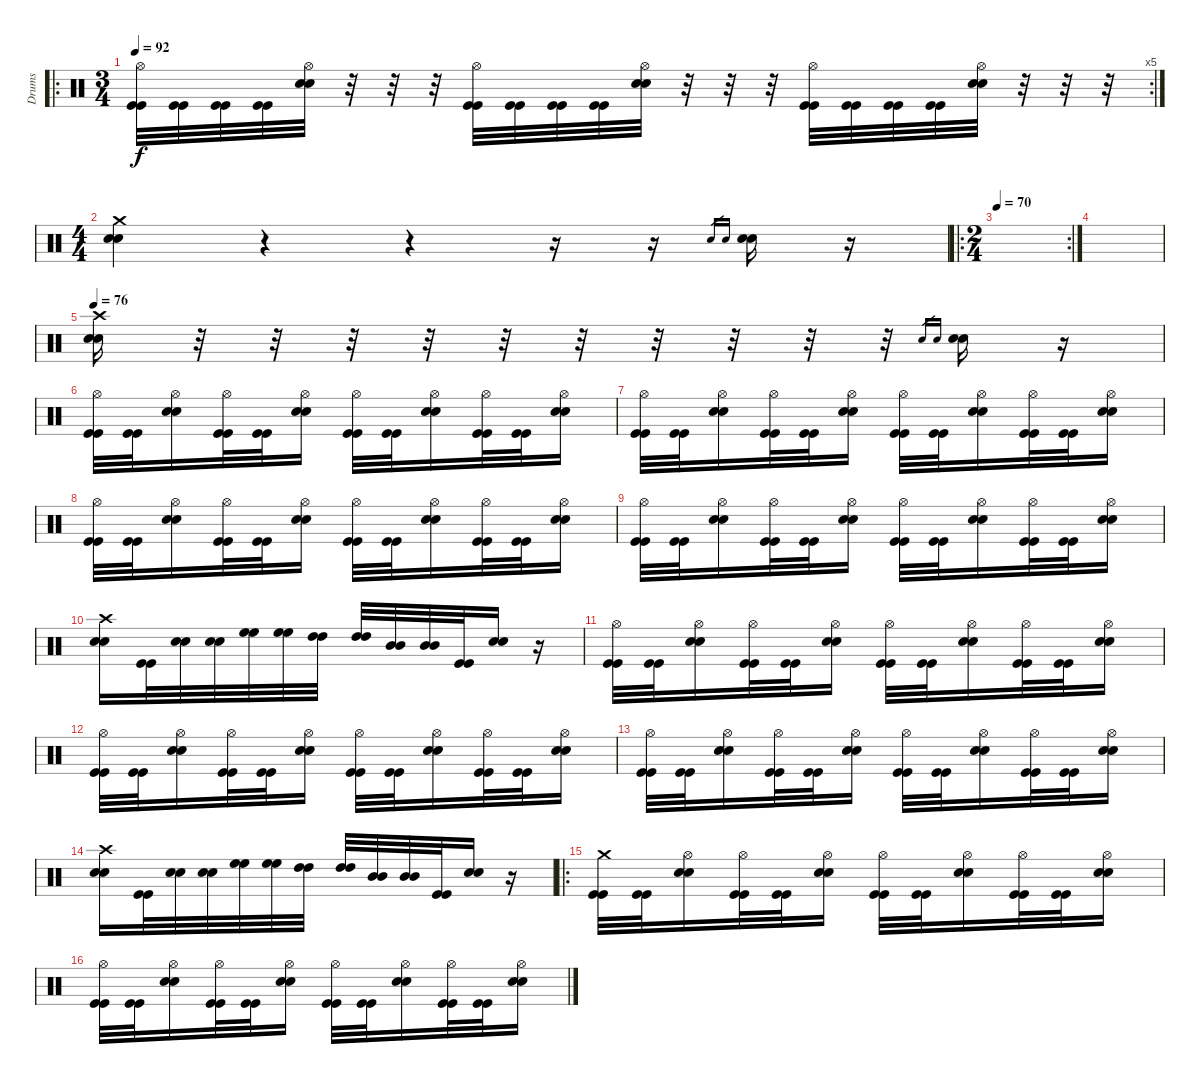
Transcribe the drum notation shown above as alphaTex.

\track ("Drums" "Drums") {instrument percussion}
\staff {score}
\articulation defaults
\ro
\rc 5
\ts (3 4)
\tempo 92
\clef neutral
\ks c
("Hi-Hat (open)" "Kick (hit)" "Kick (hit)").32{dy f} ("Kick (hit)" "Kick (hit)").32 ("Kick (hit)" "Kick (hit)").32 ("Kick (hit)" "Kick (hit)").32 ("Hi-Hat (open)" "Snare (hit) 2" "Snare (hit) 2").32 r.32 r.32 r.32 ("Hi-Hat (open)" "Kick (hit)" "Kick (hit)").32 ("Kick (hit)" "Kick (hit)").32 ("Kick (hit)" "Kick (hit)").32 ("Kick (hit)" "Kick (hit)").32 ("Hi-Hat (open)" "Snare (hit) 2" "Snare (hit) 2").32 r.32 r.32 r.32 ("Hi-Hat (open)" "Kick (hit)" "Kick (hit)").32 ("Kick (hit)" "Kick (hit)").32 ("Kick (hit)" "Kick (hit)").32 ("Kick (hit)" "Kick (hit)").32 ("Hi-Hat (open)" "Snare (hit) 2" "Snare (hit) 2").32 r.32 r.32 r.32 |
\ts (4 4)
("Crash medium (hit)" "Snare (hit) 2" "Snare (hit) 2").4 r.4 r.4 r.16 r.16 "Snare (hit) 2".16{gr} "Snare (hit) 2".16{gr} ("Snare (hit) 2" "Snare (hit) 2").16 r.16 |
\ro
\rc 2
\ts (2 4)
\tempo 70
|
|
\tempo 76
("Crash high (hit)" "Snare (hit) 2" "Snare (hit) 2").16 r.32 r.32 r.32 r.32 r.32 r.32 r.32 r.32 r.32 r.32 "Snare (hit) 2".16{gr} "Snare (hit) 2".16{gr} ("Snare (hit) 2" "Snare (hit) 2").16 r.16 |
("Hi-Hat (open)" "Kick (hit)" "Kick (hit)").32 ("Kick (hit)" "Kick (hit)").32 ("Hi-Hat (open)" "Snare (hit) 2" "Snare (hit) 2").16 ("Hi-Hat (open)" "Kick (hit)" "Kick (hit)").32 ("Kick (hit)" "Kick (hit)").32 ("Hi-Hat (open)" "Snare (hit) 2" "Snare (hit) 2").16 ("Hi-Hat (open)" "Kick (hit)" "Kick (hit)").32 ("Kick (hit)" "Kick (hit)").32 ("Hi-Hat (open)" "Snare (hit) 2" "Snare (hit) 2").16 ("Hi-Hat (open)" "Kick (hit)" "Kick (hit)").32 ("Kick (hit)" "Kick (hit)").32 ("Hi-Hat (open)" "Snare (hit) 2" "Snare (hit) 2").16 |
("Hi-Hat (open)" "Kick (hit)" "Kick (hit)").32 ("Kick (hit)" "Kick (hit)").32 ("Hi-Hat (open)" "Snare (hit) 2" "Snare (hit) 2").16 ("Hi-Hat (open)" "Kick (hit)" "Kick (hit)").32 ("Kick (hit)" "Kick (hit)").32 ("Hi-Hat (open)" "Snare (hit) 2" "Snare (hit) 2").16 ("Hi-Hat (open)" "Kick (hit)" "Kick (hit)").32 ("Kick (hit)" "Kick (hit)").32 ("Hi-Hat (open)" "Snare (hit) 2" "Snare (hit) 2").16 ("Hi-Hat (open)" "Kick (hit)" "Kick (hit)").32 ("Kick (hit)" "Kick (hit)").32 ("Hi-Hat (open)" "Snare (hit) 2" "Snare (hit) 2").16 |
("Hi-Hat (open)" "Kick (hit)" "Kick (hit)").32 ("Kick (hit)" "Kick (hit)").32 ("Hi-Hat (open)" "Snare (hit) 2" "Snare (hit) 2").16 ("Hi-Hat (open)" "Kick (hit)" "Kick (hit)").32 ("Kick (hit)" "Kick (hit)").32 ("Hi-Hat (open)" "Snare (hit) 2" "Snare (hit) 2").16 ("Hi-Hat (open)" "Kick (hit)" "Kick (hit)").32 ("Kick (hit)" "Kick (hit)").32 ("Hi-Hat (open)" "Snare (hit) 2" "Snare (hit) 2").16 ("Hi-Hat (open)" "Kick (hit)" "Kick (hit)").32 ("Kick (hit)" "Kick (hit)").32 ("Hi-Hat (open)" "Snare (hit) 2" "Snare (hit) 2").16 |
("Hi-Hat (open)" "Kick (hit)" "Kick (hit)").32 ("Kick (hit)" "Kick (hit)").32 ("Hi-Hat (open)" "Snare (hit) 2" "Snare (hit) 2").16 ("Hi-Hat (open)" "Kick (hit)" "Kick (hit)").32 ("Kick (hit)" "Kick (hit)").32 ("Hi-Hat (open)" "Snare (hit) 2" "Snare (hit) 2").16 ("Hi-Hat (open)" "Kick (hit)" "Kick (hit)").32 ("Kick (hit)" "Kick (hit)").32 ("Hi-Hat (open)" "Snare (hit) 2" "Snare (hit) 2").16 ("Hi-Hat (open)" "Kick (hit)" "Kick (hit)").32 ("Kick (hit)" "Kick (hit)").32 ("Hi-Hat (open)" "Snare (hit) 2" "Snare (hit) 2").16 |
("Crash high (hit)" "Snare (hit) 2" "Snare (hit) 2").16 ("Kick (hit)" "Kick (hit)").32 ("Snare (hit) 2" "Snare (hit) 2").32 ("Snare (hit) 2" "Snare (hit) 2").32 ("High Floor Tom (hit)" "High Floor Tom (hit)").32 ("High Floor Tom (hit)" "High Floor Tom (hit)").32 ("High Tom (hit)" "High Tom (hit)").32 ("High Tom (hit)" "High Tom (hit)").32 ("Mid Tom (hit)" "Mid Tom (hit)").32 ("Mid Tom (hit)" "Mid Tom (hit)").32 ("Kick (hit)" "Kick (hit)").32 ("Snare (hit) 2" "Snare (hit) 2").16 r.16 |
("Hi-Hat (open)" "Kick (hit)" "Kick (hit)").32 ("Kick (hit)" "Kick (hit)").32 ("Hi-Hat (open)" "Snare (hit) 2" "Snare (hit) 2").16 ("Hi-Hat (open)" "Kick (hit)" "Kick (hit)").32 ("Kick (hit)" "Kick (hit)").32 ("Hi-Hat (open)" "Snare (hit) 2" "Snare (hit) 2").16 ("Hi-Hat (open)" "Kick (hit)" "Kick (hit)").32 ("Kick (hit)" "Kick (hit)").32 ("Hi-Hat (open)" "Snare (hit) 2" "Snare (hit) 2").16 ("Hi-Hat (open)" "Kick (hit)" "Kick (hit)").32 ("Kick (hit)" "Kick (hit)").32 ("Hi-Hat (open)" "Snare (hit) 2" "Snare (hit) 2").16 |
("Hi-Hat (open)" "Kick (hit)" "Kick (hit)").32 ("Kick (hit)" "Kick (hit)").32 ("Hi-Hat (open)" "Snare (hit) 2" "Snare (hit) 2").16 ("Hi-Hat (open)" "Kick (hit)" "Kick (hit)").32 ("Kick (hit)" "Kick (hit)").32 ("Hi-Hat (open)" "Snare (hit) 2" "Snare (hit) 2").16 ("Hi-Hat (open)" "Kick (hit)" "Kick (hit)").32 ("Kick (hit)" "Kick (hit)").32 ("Hi-Hat (open)" "Snare (hit) 2" "Snare (hit) 2").16 ("Hi-Hat (open)" "Kick (hit)" "Kick (hit)").32 ("Kick (hit)" "Kick (hit)").32 ("Hi-Hat (open)" "Snare (hit) 2" "Snare (hit) 2").16 |
("Hi-Hat (open)" "Kick (hit)" "Kick (hit)").32 ("Kick (hit)" "Kick (hit)").32 ("Hi-Hat (open)" "Snare (hit) 2" "Snare (hit) 2").16 ("Hi-Hat (open)" "Kick (hit)" "Kick (hit)").32 ("Kick (hit)" "Kick (hit)").32 ("Hi-Hat (open)" "Snare (hit) 2" "Snare (hit) 2").16 ("Hi-Hat (open)" "Kick (hit)" "Kick (hit)").32 ("Kick (hit)" "Kick (hit)").32 ("Hi-Hat (open)" "Snare (hit) 2" "Snare (hit) 2").16 ("Hi-Hat (open)" "Kick (hit)" "Kick (hit)").32 ("Kick (hit)" "Kick (hit)").32 ("Hi-Hat (open)" "Snare (hit) 2" "Snare (hit) 2").16 |
("Crash high (hit)" "Snare (hit) 2" "Snare (hit) 2").16 ("Kick (hit)" "Kick (hit)").32 ("Snare (hit) 2" "Snare (hit) 2").32 ("Snare (hit) 2" "Snare (hit) 2").32 ("High Floor Tom (hit)" "High Floor Tom (hit)").32 ("High Floor Tom (hit)" "High Floor Tom (hit)").32 ("High Tom (hit)" "High Tom (hit)").32 ("High Tom (hit)" "High Tom (hit)").32 ("Mid Tom (hit)" "Mid Tom (hit)").32 ("Mid Tom (hit)" "Mid Tom (hit)").32 ("Kick (hit)" "Kick (hit)").32 ("Snare (hit) 2" "Snare (hit) 2").16 r.16 |
\ro
("Crash medium (hit)" "Kick (hit)" "Kick (hit)").32 ("Kick (hit)" "Kick (hit)").32 ("Hi-Hat (open)" "Snare (hit) 2" "Snare (hit) 2").16 ("Hi-Hat (open)" "Kick (hit)" "Kick (hit)").32 ("Kick (hit)" "Kick (hit)").32 ("Hi-Hat (open)" "Snare (hit) 2" "Snare (hit) 2").16 ("Hi-Hat (open)" "Kick (hit)" "Kick (hit)").32 ("Kick (hit)" "Kick (hit)").32 ("Hi-Hat (open)" "Snare (hit) 2" "Snare (hit) 2").16 ("Hi-Hat (open)" "Kick (hit)" "Kick (hit)").32 ("Kick (hit)" "Kick (hit)").32 ("Hi-Hat (open)" "Snare (hit) 2" "Snare (hit) 2").16 |
("Hi-Hat (open)" "Kick (hit)" "Kick (hit)").32 ("Kick (hit)" "Kick (hit)").32 ("Hi-Hat (open)" "Snare (hit) 2" "Snare (hit) 2").16 ("Hi-Hat (open)" "Kick (hit)" "Kick (hit)").32 ("Kick (hit)" "Kick (hit)").32 ("Hi-Hat (open)" "Snare (hit) 2" "Snare (hit) 2").16 ("Hi-Hat (open)" "Kick (hit)" "Kick (hit)").32 ("Kick (hit)" "Kick (hit)").32 ("Hi-Hat (open)" "Snare (hit) 2" "Snare (hit) 2").16 ("Hi-Hat (open)" "Kick (hit)" "Kick (hit)").32 ("Kick (hit)" "Kick (hit)").32 ("Hi-Hat (open)" "Snare (hit) 2" "Snare (hit) 2").16
